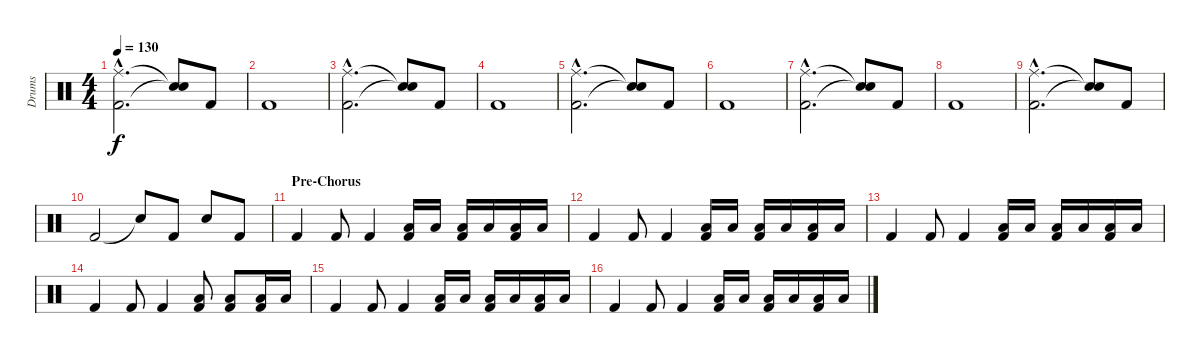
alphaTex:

\track ("Drums" "Drums") {instrument percussion}
\staff {score}
\articulation defaults
\ts (4 4)
\tempo 130
\clef neutral
\ks c
("Kick (hit) 2"{hac} "Ride (middle)"{hac}).2{d dy f} ("Snare (hit)"{t} "Snare (hit)"{t}).8 "Kick (hit) 2".8 |
"Kick (hit) 2".1 |
("Kick (hit) 2"{hac} "Ride (middle)"{hac}).2{d} ("Snare (hit)"{t} "Snare (hit)"{t}).8 "Kick (hit) 2".8 |
"Kick (hit) 2".1 |
("Kick (hit) 2"{hac} "Ride (middle)"{hac}).2{d} ("Snare (hit)"{t} "Snare (hit)"{t}).8 "Kick (hit) 2".8 |
"Kick (hit) 2".1 |
("Kick (hit) 2"{hac} "Ride (middle)"{hac}).2{d} ("Snare (hit)"{t} "Snare (hit)"{t}).8 "Kick (hit) 2".8 |
"Kick (hit) 2".1 |
("Kick (hit) 2"{hac} "Ride (middle)"{hac}).2{d} ("Snare (hit)"{t} "Snare (hit)"{t}).8 "Kick (hit) 2".8 |
"Kick (hit) 2".2 "Snare (hit)"{t}.8 "Kick (hit) 2".8 "Snare (hit) 2".8 "Kick (hit) 2".8 |
\section ("" "Pre-Chorus")
"Kick (hit) 2".4 "Kick (hit) 2".8 "Kick (hit) 2".4 ("Kick (hit) 2" "Low Tom (hit)").16 "Low Tom (hit)".16 ("Kick (hit) 2" "Low Tom (hit)").16 "Low Tom (hit)".16 ("Kick (hit) 2" "Low Tom (hit)").16 "Low Tom (hit)".16 |
"Kick (hit) 2".4 "Kick (hit) 2".8 "Kick (hit) 2".4 ("Kick (hit) 2" "Low Tom (hit)").16 "Low Tom (hit)".16 ("Kick (hit) 2" "Low Tom (hit)").16 "Low Tom (hit)".16 ("Kick (hit) 2" "Low Tom (hit)").16 "Low Tom (hit)".16 |
"Kick (hit) 2".4 "Kick (hit) 2".8 "Kick (hit) 2".4 ("Kick (hit) 2" "Low Tom (hit)").16 "Low Tom (hit)".16 ("Kick (hit) 2" "Low Tom (hit)").16 "Low Tom (hit)".16 ("Kick (hit) 2" "Low Tom (hit)").16 "Low Tom (hit)".16 |
"Kick (hit) 2".4 "Kick (hit) 2".8 "Kick (hit) 2".4 ("Kick (hit) 2" "Low Tom (hit)").8 ("Kick (hit) 2" "Low Tom (hit)").8 ("Kick (hit) 2" "Low Tom (hit)").16 "Low Tom (hit)".16 |
"Kick (hit) 2".4 "Kick (hit) 2".8 "Kick (hit) 2".4 ("Kick (hit) 2" "Low Tom (hit)").16 "Low Tom (hit)".16 ("Kick (hit) 2" "Low Tom (hit)").16 "Low Tom (hit)".16 ("Kick (hit) 2" "Low Tom (hit)").16 "Low Tom (hit)".16 |
"Kick (hit) 2".4 "Kick (hit) 2".8 "Kick (hit) 2".4 ("Kick (hit) 2" "Low Tom (hit)").16 "Low Tom (hit)".16 ("Kick (hit) 2" "Low Tom (hit)").16 "Low Tom (hit)".16 ("Kick (hit) 2" "Low Tom (hit)").16 "Low Tom (hit)".16
